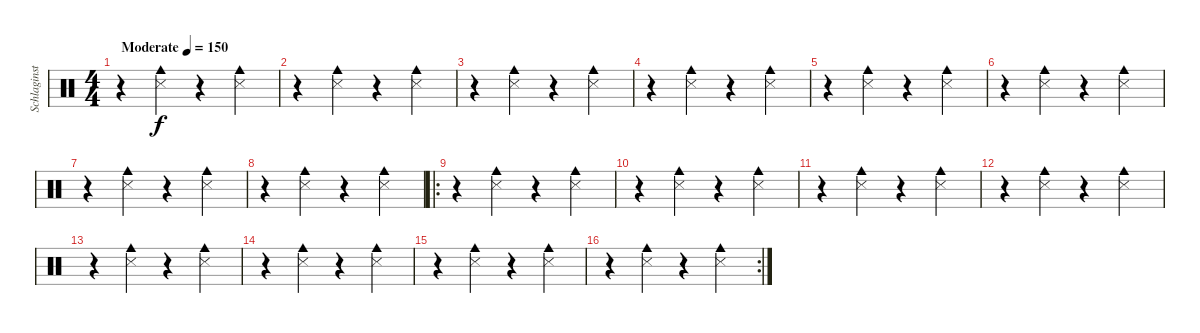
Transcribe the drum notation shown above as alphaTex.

\track ("Schlaginstrumente - Auswahl" "Schlaginst") {instrument percussion}
\staff {score}
\articulation defaults
\ts (4 4)
\tempo (150 "Moderate")
\clef neutral
\ks c
r.4{dy f} ("Cowbell medium (hit)" "Snare (side stick) 3").4 r.4 ("Cowbell medium (hit)" "Snare (side stick) 3").4 |
r.4 ("Cowbell medium (hit)" "Snare (side stick) 3").4 r.4 ("Cowbell medium (hit)" "Snare (side stick) 3").4 |
r.4 ("Cowbell medium (hit)" "Snare (side stick) 3").4 r.4 ("Cowbell medium (hit)" "Snare (side stick) 3").4 |
r.4 ("Cowbell medium (hit)" "Snare (side stick) 3").4 r.4 ("Cowbell medium (hit)" "Snare (side stick) 3").4 |
r.4 ("Cowbell medium (hit)" "Snare (side stick) 3").4 r.4 ("Cowbell medium (hit)" "Snare (side stick) 3").4 |
r.4 ("Cowbell medium (hit)" "Snare (side stick) 3").4 r.4 ("Cowbell medium (hit)" "Snare (side stick) 3").4 |
r.4 ("Cowbell medium (hit)" "Snare (side stick) 3").4 r.4 ("Cowbell medium (hit)" "Snare (side stick) 3").4 |
r.4 ("Cowbell medium (hit)" "Snare (side stick) 3").4 r.4 ("Cowbell medium (hit)" "Snare (side stick) 3").4 |
\ro
r.4 ("Cowbell medium (hit)" "Snare (side stick) 3").4 r.4 ("Cowbell medium (hit)" "Snare (side stick) 3").4 |
r.4 ("Cowbell medium (hit)" "Snare (side stick) 3").4 r.4 ("Cowbell medium (hit)" "Snare (side stick) 3").4 |
r.4 ("Cowbell medium (hit)" "Snare (side stick) 3").4 r.4 ("Cowbell medium (hit)" "Snare (side stick) 3").4 |
r.4 ("Cowbell medium (hit)" "Snare (side stick) 3").4 r.4 ("Cowbell medium (hit)" "Snare (side stick) 3").4 |
r.4 ("Cowbell medium (hit)" "Snare (side stick) 3").4 r.4 ("Cowbell medium (hit)" "Snare (side stick) 3").4 |
r.4 ("Cowbell medium (hit)" "Snare (side stick) 3").4 r.4 ("Cowbell medium (hit)" "Snare (side stick) 3").4 |
r.4 ("Cowbell medium (hit)" "Snare (side stick) 3").4 r.4 ("Cowbell medium (hit)" "Snare (side stick) 3").4 |
\rc 2
r.4 ("Cowbell medium (hit)" "Snare (side stick) 3").4 r.4 ("Cowbell medium (hit)" "Snare (side stick) 3").4
